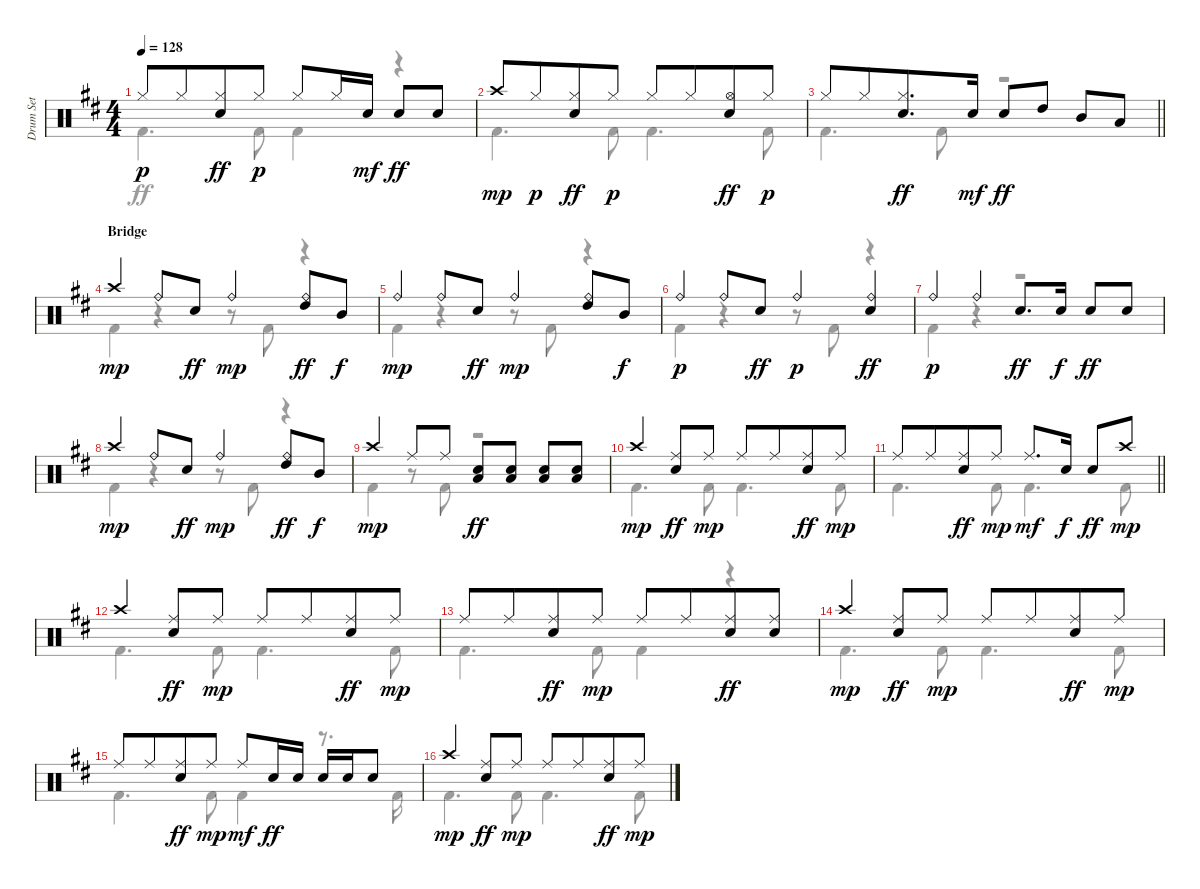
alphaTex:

\track ("Drum Set" "Drum Set") {instrument percussion}
\staff {score}
\articulation defaults
\voice
\ts (4 4)
\tempo 128
\clef neutral
\ks bminor "Hi-Hat (closed)".8{dy p} "Hi-Hat (closed)".8{beam merge}
("Hi-Hat (closed)" "Electric Snare (hit)").8{dy ff} "Hi-Hat (closed)".8{dy p} "Hi-Hat (closed)".8 "Hi-Hat (closed)".16 "Electric Snare (hit)".16{dy mf beam split} "Electric Snare (hit)".8{dy ff} "Electric Snare (hit)".8 |
"Crash high (hit)".8{dy mp} "Hi-Hat (closed)".8{dy p beam merge} ("Hi-Hat (closed)" "Electric Snare (hit)").8{dy ff} "Hi-Hat (closed)".8{dy p} "Hi-Hat (closed)".8 "Hi-Hat (closed)".8{beam merge} ("Hi-Hat (open)" "Electric Snare (hit)").8{dy ff} "Hi-Hat (closed)".8{dy p} |
\barLineRight lightlight "Hi-Hat (closed)".8 "Hi-Hat (closed)".8{beam merge}
("Hi-Hat (closed)" "Electric Snare (hit)").8{d dy ff} "Electric Snare (hit)".16{dy mf} "Electric Snare (hit)".8{dy ff} "High Tom (hit)".8 "Mid Tom (hit)".8 "Low Tom (hit)".8 |
\section ("" "Bridge")
"Crash high (hit)".4{dy mp} "Ride (bell)".8 "Electric Snare (hit)".8{dy ff} "Ride (bell)".4{dy mp} ("Ride (bell)" "High Tom (hit)").8{dy ff} "Mid Tom (hit)".8{dy f} |
"Ride (bell)".4{dy mp} "Ride (bell)".8 "Electric Snare (hit)".8{dy ff} "Ride (bell)".4{dy mp} ("Ride (bell)" "High Tom (hit)").8 "Mid Tom (hit)".8{dy f} |
"Ride (bell)".4{dy p} "Ride (bell)".8 "Electric Snare (hit)".8{dy ff} "Ride (bell)".4{dy p} ("Ride (bell)" "Electric Snare (hit)").4{dy ff} |
"Ride (bell)".4{dy p} "Ride (bell)".4 "Electric Snare (hit)".8{d dy ff} "Electric Snare (hit)".16{dy f} "Electric Snare (hit)".8{dy ff} "Electric Snare (hit)".8 |
"Crash high (hit)".4{dy mp} "Ride (bell)".8 "Electric Snare (hit)".8{dy ff} "Ride (bell)".4{dy mp} ("Ride (bell)" "High Tom (hit)").8{dy ff} "Mid Tom (hit)".8{dy f} |
"Crash high (hit)".4{dy mp} "Ride (middle)".8 "Ride (middle)".8 ("Electric Snare (hit)" "Low Tom (hit)").8{dy ff} ("Electric Snare (hit)" "Low Tom (hit)").8 ("Electric Snare (hit)" "Low Tom (hit)").8 ("Electric Snare (hit)" "Low Tom (hit)").8 |
"Crash high (hit)".4{dy mp} ("Ride (middle)" "Electric Snare (hit)").8{dy ff} "Ride (middle)".8{dy mp} "Ride (middle)".8 "Ride (middle)".8{beam merge} ("Ride (middle)" "Electric Snare (hit)").8{dy ff} "Ride (middle)".8{dy mp} |
\barLineRight lightlight "Ride (middle)".8 "Ride (middle)".8{beam merge}
("Ride (middle)" "Electric Snare (hit)").8{dy ff} "Ride (middle)".8{dy mp} "Ride (middle)".8{d dy mf} "Electric Snare (hit)".16{dy f} "Electric Snare (hit)".8{dy ff} "Crash high (hit)".8{dy mp} |
"Crash high (hit)".4 ("Ride (middle)" "Electric Snare (hit)").8{dy ff} "Ride (middle)".8{dy mp} "Ride (middle)".8 "Ride (middle)".8{beam merge} ("Ride (middle)" "Electric Snare (hit)").8{dy ff} "Ride (middle)".8{dy mp} |
"Ride (middle)".8 "Ride (middle)".8{beam merge} ("Ride (middle)" "Electric Snare (hit)").8{dy ff} "Ride (middle)".8{dy mp} "Ride (middle)".8 "Ride (middle)".8{beam merge} ("Ride (middle)" "Electric Snare (hit)").8{dy ff} ("Ride (middle)" "Electric Snare (hit)").8 |
"Crash high (hit)".4{dy mp} ("Ride (middle)" "Electric Snare (hit)").8{dy ff} "Ride (middle)".8{dy mp} "Ride (middle)".8 "Ride (middle)".8{beam merge} ("Ride (middle)" "Electric Snare (hit)").8{dy ff} "Ride (middle)".8{dy mp} |
"Ride (middle)".8 "Ride (middle)".8{beam merge} ("Ride (middle)" "Electric Snare (hit)").8{dy ff} "Ride (middle)".8{dy mp} "Ride (middle)".8{dy mf} "Electric Snare (hit)".16{dy ff} "Electric Snare (hit)".16 "Electric Snare (hit)".16 "Electric Snare (hit)".16 "Electric Snare (hit)".8 |
"Crash high (hit)".4{dy mp} ("Ride (middle)" "Electric Snare (hit)").8{dy ff} "Ride (middle)".8{dy mp} "Ride (middle)".8 "Ride (middle)".8{beam merge} ("Ride (middle)" "Electric Snare (hit)").8{dy ff} "Ride (middle)".8{dy mp}
\voice
\clef neutral
\ottava regular
\simile none
\ks bminor "Kick (hit) 2".4{d dy ff} "Kick (hit) 2".8 "Kick (hit) 2".4
r.4 |
"Kick (hit) 2".4{d} "Kick (hit) 2".8 "Kick (hit) 2".4{d} "Kick (hit) 2".8 |
\barLineRight lightlight "Kick (hit) 2".4{d} "Kick (hit) 2".8
r.2 |
"Kick (hit) 2".4 r.4 r.8 "Kick (hit) 2".8 r.4 |
"Kick (hit) 2".4 r.4 r.8 "Kick (hit) 2".8 r.4 |
"Kick (hit) 2".4 r.4 r.8 "Kick (hit) 2".8 r.4 |
"Kick (hit) 2".4 r.4 r.2 |
"Kick (hit) 2".4 r.4 r.8 "Kick (hit) 2".8 r.4 |
"Kick (hit) 2".4 r.8 "Kick (hit) 2".8 r.2 |
"Kick (hit) 2".4{d} "Kick (hit) 2".8 "Kick (hit) 2".4{d} "Kick (hit) 2".8 |
\barLineRight lightlight "Kick (hit) 2".4{d} "Kick (hit) 2".8 "Kick (hit) 2".4{d} "Kick (hit) 2".8
|
"Kick (hit) 2".4{d} "Kick (hit) 2".8 "Kick (hit) 2".4{d} "Kick (hit) 2".8 |
"Kick (hit) 2".4{d} "Kick (hit) 2".8 "Kick (hit) 2".4 r.4 |
"Kick (hit) 2".4{d} "Kick (hit) 2".8 "Kick (hit) 2".4{d} "Kick (hit) 2".8 |
"Kick (hit) 2".4{d} "Kick (hit) 2".8 "Kick (hit) 2".4 r.8{d} "Kick (hit) 2".16 |
"Kick (hit) 2".4{d} "Kick (hit) 2".8 "Kick (hit) 2".4{d} "Kick (hit) 2".8
